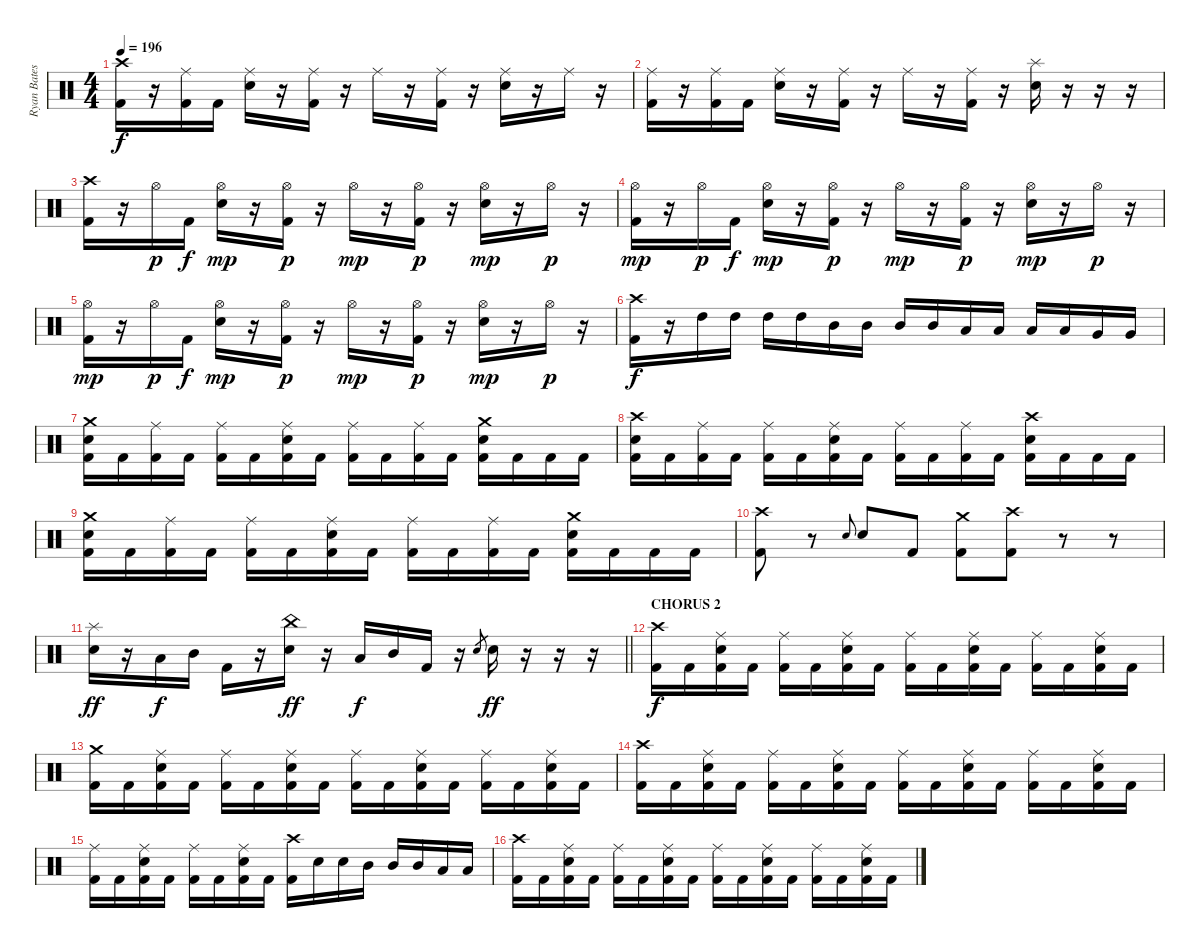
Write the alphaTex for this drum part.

\track ("Ryan Bates" "Ryan Bates") {instrument percussion}
\staff {score}
\articulation defaults
\ts (4 4)
\tempo 196
\clef neutral
\ks c
("Crash high (hit)" "Kick (hit) 2").16{dy f} r.16 ("Ride (middle)" "Kick (hit) 2").16 "Kick (hit) 2".16 ("Ride (middle)" "Electric Snare (hit)").16 r.16 ("Ride (middle)" "Kick (hit) 2").16 r.16 "Ride (middle)".16 r.16 ("Ride (middle)" "Kick (hit) 2").16 r.16 ("Ride (middle)" "Electric Snare (hit)").16 r.16 "Ride (middle)".16 r.16 |
("Ride (middle)" "Kick (hit) 2").16 r.16 ("Ride (middle)" "Kick (hit) 2").16 "Kick (hit) 2".16 ("Ride (middle)" "Electric Snare (hit)").16 r.16 ("Ride (middle)" "Kick (hit) 2").16 r.16 "Ride (middle)".16 r.16 ("Ride (middle)" "Kick (hit) 2").16 r.16 ("Splash (hit)" "Electric Snare (hit)").16 r.16 r.16 r.16 |
("Crash high (hit)" "Kick (hit) 2").16 r.16 "Hi-Hat (open)".16{dy p} "Kick (hit) 2".16{dy f} ("Hi-Hat (open)" "Electric Snare (hit)").16{dy mp} r.16 ("Hi-Hat (open)" "Kick (hit) 2").16{dy p} r.16 "Hi-Hat (open)".16{dy mp} r.16 ("Hi-Hat (open)" "Kick (hit) 2").16{dy p} r.16 ("Hi-Hat (open)" "Electric Snare (hit)").16{dy mp} r.16 "Hi-Hat (open)".16{dy p} r.16 |
("Hi-Hat (open)" "Kick (hit) 2").16{dy mp} r.16 "Hi-Hat (open)".16{dy p} "Kick (hit) 2".16{dy f} ("Hi-Hat (open)" "Electric Snare (hit)").16{dy mp} r.16 ("Hi-Hat (open)" "Kick (hit) 2").16{dy p} r.16 "Hi-Hat (open)".16{dy mp} r.16 ("Hi-Hat (open)" "Kick (hit) 2").16{dy p} r.16 ("Hi-Hat (open)" "Electric Snare (hit)").16{dy mp} r.16 "Hi-Hat (open)".16{dy p} r.16 |
("Hi-Hat (open)" "Kick (hit) 2").16{dy mp} r.16 "Hi-Hat (open)".16{dy p} "Kick (hit) 2".16{dy f} ("Hi-Hat (open)" "Electric Snare (hit)").16{dy mp} r.16 ("Hi-Hat (open)" "Kick (hit) 2").16{dy p} r.16 "Hi-Hat (open)".16{dy mp} r.16 ("Hi-Hat (open)" "Kick (hit) 2").16{dy p} r.16 ("Hi-Hat (open)" "Electric Snare (hit)").16{dy mp} r.16 "Hi-Hat (open)".16{dy p} r.16 |
("Crash high (hit)" "Kick (hit) 2").16{dy f} r.16 "High Tom (hit)".16 "High Tom (hit)".16 "High Tom (hit)".16 "High Tom (hit)".16 "Mid Tom (hit)".16 "Mid Tom (hit)".16 "Mid Tom (hit)".16 "Mid Tom (hit)".16 "Low Tom (hit)".16 "Low Tom (hit)".16 "Low Tom (hit)".16 "Low Tom (hit)".16 "Very Low Tom (hit)".16 "Very Low Tom (hit)".16 |
("Crash medium (hit)" "Electric Snare (hit)" "Kick (hit) 2").16 "Kick (hit) 2".16 ("Ride (middle)" "Kick (hit) 2").16 "Kick (hit) 2".16 ("Ride (middle)" "Kick (hit) 2").16 "Kick (hit) 2".16 ("Ride (middle)" "Electric Snare (hit)" "Kick (hit) 2").16 "Kick (hit) 2".16 ("Ride (middle)" "Kick (hit) 2").16 "Kick (hit) 2".16 ("Ride (middle)" "Kick (hit) 2").16 "Kick (hit) 2".16 ("Crash medium (hit)" "Electric Snare (hit)" "Kick (hit) 2").16 "Kick (hit) 2".16 "Kick (hit) 2".16 "Kick (hit) 2".16 |
("Crash high (hit)" "Electric Snare (hit)" "Kick (hit) 2").16 "Kick (hit) 2".16 ("Ride (middle)" "Kick (hit) 2").16 "Kick (hit) 2".16 ("Ride (middle)" "Kick (hit) 2").16 "Kick (hit) 2".16 ("Ride (middle)" "Electric Snare (hit)" "Kick (hit) 2").16 "Kick (hit) 2".16 ("Ride (middle)" "Kick (hit) 2").16 "Kick (hit) 2".16 ("Ride (middle)" "Kick (hit) 2").16 "Kick (hit) 2".16 ("Crash high (hit)" "Electric Snare (hit)" "Kick (hit) 2").16 "Kick (hit) 2".16 "Kick (hit) 2".16 "Kick (hit) 2".16 |
("Crash medium (hit)" "Electric Snare (hit)" "Kick (hit) 2").16 "Kick (hit) 2".16 ("Ride (middle)" "Kick (hit) 2").16 "Kick (hit) 2".16 ("Ride (middle)" "Kick (hit) 2").16 "Kick (hit) 2".16 ("Ride (middle)" "Electric Snare (hit)" "Kick (hit) 2").16 "Kick (hit) 2".16 ("Ride (middle)" "Kick (hit) 2").16 "Kick (hit) 2".16 ("Ride (middle)" "Kick (hit) 2").16 "Kick (hit) 2".16 ("Crash medium (hit)" "Electric Snare (hit)" "Kick (hit) 2").16 "Kick (hit) 2".16 "Kick (hit) 2".16 "Kick (hit) 2".16 |
("Crash high (hit)" "Kick (hit) 2").8 r.8 "Electric Snare (hit)".8{gr onbeat} "Electric Snare (hit)".8 "Kick (hit) 2".8 ("Crash medium (hit)" "Kick (hit) 2").8 ("Crash high (hit)" "Kick (hit) 2").8 r.8 r.8 |
\barLineRight lightlight
("Splash (hit)" "Electric Snare (hit)").16{dy ff} r.16 "Low Tom (hit)".16{dy f} "Mid Tom (hit)".16 "Kick (hit) 2".16 r.16 ("China (hit)" "Electric Snare (hit)").16{dy ff} r.16 "Low Tom (hit)".16{dy f} "Mid Tom (hit)".16 "Kick (hit) 2".16 r.16 "Electric Snare (hit)".8{gr} "Electric Snare (hit)".16{dy ff} r.16 r.16 r.16 |
\section ("" "CHORUS 2")
("Crash high (hit)" "Kick (hit) 2").16{dy f} "Kick (hit) 2".16 ("Ride (middle)" "Electric Snare (hit)" "Kick (hit) 2").16 "Kick (hit) 2".16 ("Ride (middle)" "Kick (hit) 2").16 "Kick (hit) 2".16 ("Ride (middle)" "Electric Snare (hit)" "Kick (hit) 2").16 "Kick (hit) 2".16 ("Ride (middle)" "Kick (hit) 2").16 "Kick (hit) 2".16 ("Ride (middle)" "Electric Snare (hit)" "Kick (hit) 2").16 "Kick (hit) 2".16 ("Ride (middle)" "Kick (hit) 2").16 "Kick (hit) 2".16 ("Ride (middle)" "Electric Snare (hit)" "Kick (hit) 2").16 "Kick (hit) 2".16 |
("Crash medium (hit)" "Kick (hit) 2").16 "Kick (hit) 2".16 ("Ride (middle)" "Electric Snare (hit)" "Kick (hit) 2").16 "Kick (hit) 2".16 ("Ride (middle)" "Kick (hit) 2").16 "Kick (hit) 2".16 ("Ride (middle)" "Electric Snare (hit)" "Kick (hit) 2").16 "Kick (hit) 2".16 ("Ride (middle)" "Kick (hit) 2").16 "Kick (hit) 2".16 ("Ride (middle)" "Electric Snare (hit)" "Kick (hit) 2").16 "Kick (hit) 2".16 ("Ride (middle)" "Kick (hit) 2").16 "Kick (hit) 2".16 ("Ride (middle)" "Electric Snare (hit)" "Kick (hit) 2").16 "Kick (hit) 2".16 |
("Crash high (hit)" "Kick (hit) 2").16 "Kick (hit) 2".16 ("Ride (middle)" "Electric Snare (hit)" "Kick (hit) 2").16 "Kick (hit) 2".16 ("Ride (middle)" "Kick (hit) 2").16 "Kick (hit) 2".16 ("Ride (middle)" "Electric Snare (hit)" "Kick (hit) 2").16 "Kick (hit) 2".16 ("Ride (middle)" "Kick (hit) 2").16 "Kick (hit) 2".16 ("Ride (middle)" "Electric Snare (hit)" "Kick (hit) 2").16 "Kick (hit) 2".16 ("Ride (middle)" "Kick (hit) 2").16 "Kick (hit) 2".16 ("Ride (middle)" "Electric Snare (hit)" "Kick (hit) 2").16 "Kick (hit) 2".16 |
("Ride (middle)" "Kick (hit) 2").16 "Kick (hit) 2".16 ("Ride (middle)" "Electric Snare (hit)" "Kick (hit) 2").16 "Kick (hit) 2".16 ("Ride (middle)" "Kick (hit) 2").16 "Kick (hit) 2".16 ("Ride (middle)" "Electric Snare (hit)" "Kick (hit) 2").16 "Kick (hit) 2".16 ("Crash high (hit)" "Kick (hit) 2").16 "Electric Snare (hit)".16 "Electric Snare (hit)".16 "Mid Tom (hit)".16 "Mid Tom (hit)".16 "Mid Tom (hit)".16 "Low Tom (hit)".16 "Low Tom (hit)".16 |
("Crash high (hit)" "Kick (hit) 2").16 "Kick (hit) 2".16 ("Ride (middle)" "Electric Snare (hit)" "Kick (hit) 2").16 "Kick (hit) 2".16 ("Ride (middle)" "Kick (hit) 2").16 "Kick (hit) 2".16 ("Ride (middle)" "Electric Snare (hit)" "Kick (hit) 2").16 "Kick (hit) 2".16 ("Ride (middle)" "Kick (hit) 2").16 "Kick (hit) 2".16 ("Ride (middle)" "Electric Snare (hit)" "Kick (hit) 2").16 "Kick (hit) 2".16 ("Ride (middle)" "Kick (hit) 2").16 "Kick (hit) 2".16 ("Ride (middle)" "Electric Snare (hit)" "Kick (hit) 2").16 "Kick (hit) 2".16
